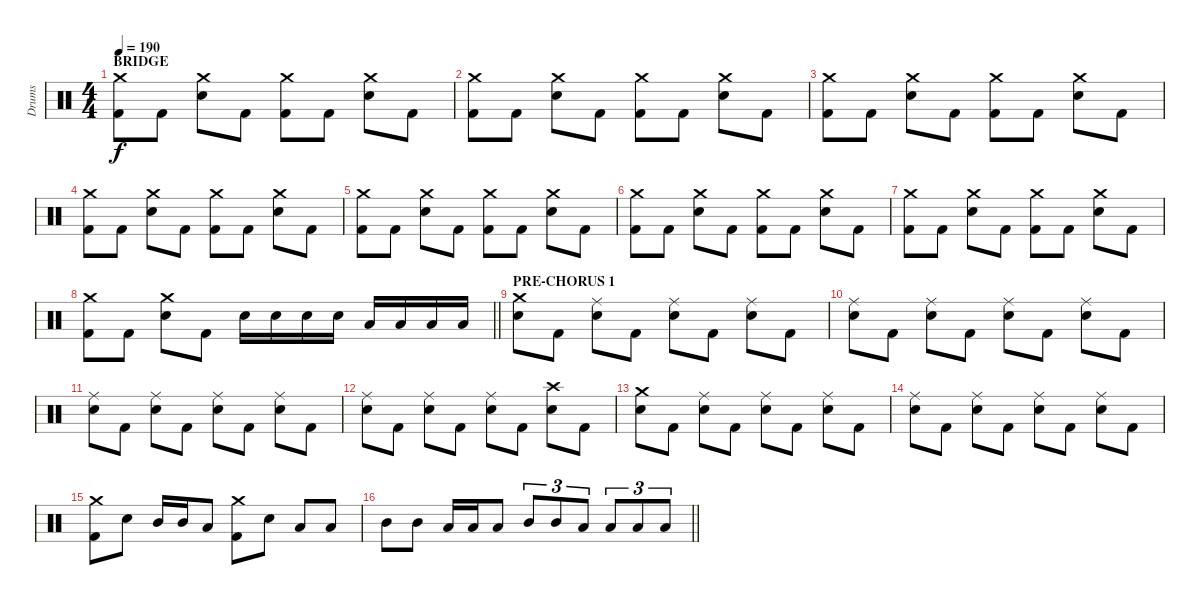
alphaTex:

\track ("Drums" "Drums") {instrument percussion}
\staff {score}
\articulation defaults
\ts (4 4)
\section ("" "BRIDGE")
\tempo 190
\clef neutral
\ks c
("Crash medium (hit)" "Kick (hit) 2").8{dy f} "Kick (hit) 2".8 ("Crash medium (hit)" "Electric Snare (hit)").8 "Kick (hit) 2".8 ("Crash medium (hit)" "Kick (hit) 2").8 "Kick (hit) 2".8 ("Crash medium (hit)" "Electric Snare (hit)").8 "Kick (hit) 2".8 |
("Crash medium (hit)" "Kick (hit) 2").8 "Kick (hit) 2".8 ("Crash medium (hit)" "Electric Snare (hit)").8 "Kick (hit) 2".8 ("Crash medium (hit)" "Kick (hit) 2").8 "Kick (hit) 2".8 ("Crash medium (hit)" "Electric Snare (hit)").8 "Kick (hit) 2".8 |
("Crash medium (hit)" "Kick (hit) 2").8 "Kick (hit) 2".8 ("Crash medium (hit)" "Electric Snare (hit)").8 "Kick (hit) 2".8 ("Crash medium (hit)" "Kick (hit) 2").8 "Kick (hit) 2".8 ("Crash medium (hit)" "Electric Snare (hit)").8 "Kick (hit) 2".8 |
("Crash medium (hit)" "Kick (hit) 2").8 "Kick (hit) 2".8 ("Crash medium (hit)" "Electric Snare (hit)").8 "Kick (hit) 2".8 ("Crash medium (hit)" "Kick (hit) 2").8 "Kick (hit) 2".8 ("Crash medium (hit)" "Electric Snare (hit)").8 "Kick (hit) 2".8 |
("Crash medium (hit)" "Kick (hit) 2").8 "Kick (hit) 2".8 ("Crash medium (hit)" "Electric Snare (hit)").8 "Kick (hit) 2".8 ("Crash medium (hit)" "Kick (hit) 2").8 "Kick (hit) 2".8 ("Crash medium (hit)" "Electric Snare (hit)").8 "Kick (hit) 2".8 |
("Crash medium (hit)" "Kick (hit) 2").8 "Kick (hit) 2".8 ("Crash medium (hit)" "Electric Snare (hit)").8 "Kick (hit) 2".8 ("Crash medium (hit)" "Kick (hit) 2").8 "Kick (hit) 2".8 ("Crash medium (hit)" "Electric Snare (hit)").8 "Kick (hit) 2".8 |
("Crash medium (hit)" "Kick (hit) 2").8 "Kick (hit) 2".8 ("Crash medium (hit)" "Electric Snare (hit)").8 "Kick (hit) 2".8 ("Crash medium (hit)" "Kick (hit) 2").8 "Kick (hit) 2".8 ("Crash medium (hit)" "Electric Snare (hit)").8 "Kick (hit) 2".8 |
\barLineRight lightlight
("Crash medium (hit)" "Kick (hit) 2").8 "Kick (hit) 2".8 ("Crash medium (hit)" "Electric Snare (hit)").8 "Kick (hit) 2".8 "Electric Snare (hit)".16 "Electric Snare (hit)".16 "Electric Snare (hit)".16 "Electric Snare (hit)".16 "Low Floor Tom (hit)".16 "Low Floor Tom (hit)".16 "Low Floor Tom (hit)".16 "Low Floor Tom (hit)".16 |
\section ("" "PRE-CHORUS 1")
("Crash medium (hit)" "Electric Snare (hit)").8 "Kick (hit) 2".8 ("Ride (middle)" "Electric Snare (hit)").8 "Kick (hit) 2".8 ("Ride (middle)" "Electric Snare (hit)").8 "Kick (hit) 2".8 ("Ride (middle)" "Electric Snare (hit)").8 "Kick (hit) 2".8 |
("Ride (middle)" "Electric Snare (hit)").8 "Kick (hit) 2".8 ("Ride (middle)" "Electric Snare (hit)").8 "Kick (hit) 2".8 ("Ride (middle)" "Electric Snare (hit)").8 "Kick (hit) 2".8 ("Ride (middle)" "Electric Snare (hit)").8 "Kick (hit) 2".8 |
("Ride (middle)" "Electric Snare (hit)").8 "Kick (hit) 2".8 ("Ride (middle)" "Electric Snare (hit)").8 "Kick (hit) 2".8 ("Ride (middle)" "Electric Snare (hit)").8 "Kick (hit) 2".8 ("Ride (middle)" "Electric Snare (hit)").8 "Kick (hit) 2".8 |
("Ride (middle)" "Electric Snare (hit)").8 "Kick (hit) 2".8 ("Ride (middle)" "Electric Snare (hit)").8 "Kick (hit) 2".8 ("Ride (middle)" "Electric Snare (hit)").8 "Kick (hit) 2".8 ("Crash high (hit)" "Electric Snare (hit)").8 "Kick (hit) 2".8 |
("Crash medium (hit)" "Electric Snare (hit)").8 "Kick (hit) 2".8 ("Ride (middle)" "Electric Snare (hit)").8 "Kick (hit) 2".8 ("Ride (middle)" "Electric Snare (hit)").8 "Kick (hit) 2".8 ("Ride (middle)" "Electric Snare (hit)").8 "Kick (hit) 2".8 |
("Ride (middle)" "Electric Snare (hit)").8 "Kick (hit) 2".8 ("Ride (middle)" "Electric Snare (hit)").8 "Kick (hit) 2".8 ("Ride (middle)" "Electric Snare (hit)").8 "Kick (hit) 2".8 ("Ride (middle)" "Electric Snare (hit)").8 "Kick (hit) 2".8 |
("Crash medium (hit)" "Kick (hit) 2").8 "Electric Snare (hit)".8 "Mid Tom (hit)".16 "Mid Tom (hit)".16 "Low Tom (hit)".8 ("Crash medium (hit)" "Kick (hit) 2").8 "Electric Snare (hit)".8 "Low Tom (hit)".8 "Low Floor Tom (hit)".8 |
\barLineRight lightlight "Mid Tom (hit)".8 "Mid Tom (hit)".8 "Low Tom (hit)".16 "Low Tom (hit)".16 "Low Floor Tom (hit)".8 "Mid Tom (hit)".8{tu (3 2)} "Mid Tom (hit)".8{tu (3 2)} "Low Tom (hit)".8{tu (3 2)} "Low Tom (hit)".8{tu (3 2)} "Low Floor Tom (hit)".8{tu (3 2)} "Low Floor Tom (hit)".8{tu (3 2)}
